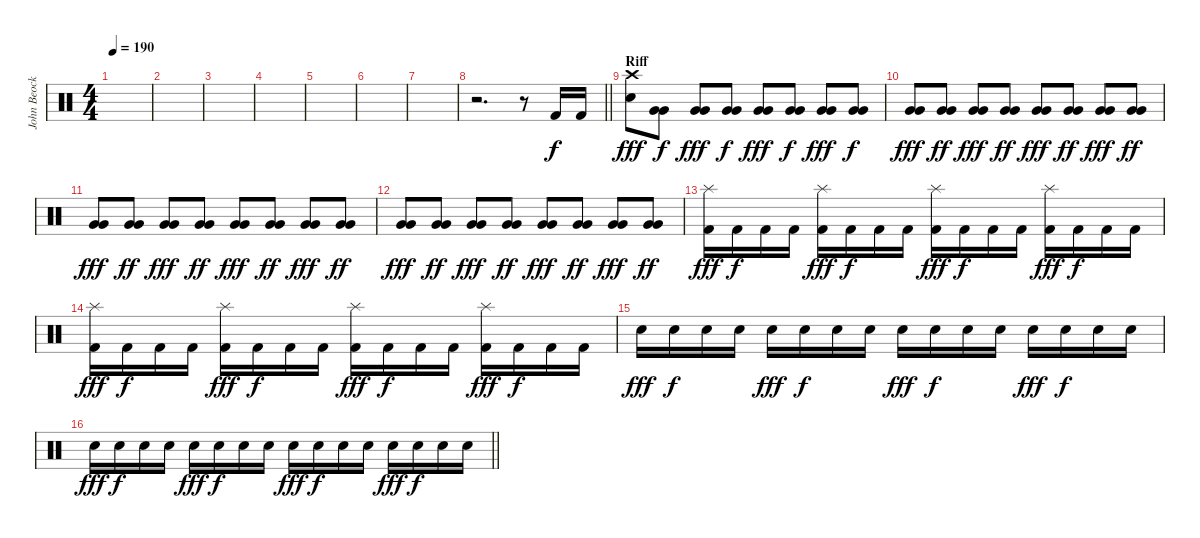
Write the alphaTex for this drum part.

\track ("John Beocklin (Drums)" "John Beock") {instrument percussion}
\staff {score}
\articulation defaults
\ts (4 4)
\tempo 190
\clef neutral
\ks c
|
|
|
|
|
|
|
\barLineRight lightlight
r.2{d} r.8 "Kick (hit) 2".16 "Kick (hit) 2".16 |
\section ("" "Riff")
("Crash high (hit)" "Snare (hit) 2").8{dy fff} ("Very Low Tom (hit)" "Very Low Tom (hit)").8{dy f} ("Very Low Tom (hit)" "Very Low Tom (hit)").8{dy fff} ("Very Low Tom (hit)" "Very Low Tom (hit)").8{dy f} ("Very Low Tom (hit)" "Very Low Tom (hit)").8{dy fff} ("Very Low Tom (hit)" "Very Low Tom (hit)").8{dy f} ("Very Low Tom (hit)" "Very Low Tom (hit)").8{dy fff} ("Very Low Tom (hit)" "Very Low Tom (hit)").8{dy f} |
("Very Low Tom (hit)" "Very Low Tom (hit)").8{dy fff} ("Very Low Tom (hit)" "Very Low Tom (hit)").8{dy ff} ("Very Low Tom (hit)" "Very Low Tom (hit)").8{dy fff} ("Very Low Tom (hit)" "Very Low Tom (hit)").8{dy ff} ("Very Low Tom (hit)" "Very Low Tom (hit)").8{dy fff} ("Very Low Tom (hit)" "Very Low Tom (hit)").8{dy ff} ("Very Low Tom (hit)" "Very Low Tom (hit)").8{dy fff} ("Very Low Tom (hit)" "Very Low Tom (hit)").8{dy ff} |
("Very Low Tom (hit)" "Very Low Tom (hit)").8{dy fff} ("Very Low Tom (hit)" "Very Low Tom (hit)").8{dy ff} ("Very Low Tom (hit)" "Very Low Tom (hit)").8{dy fff} ("Very Low Tom (hit)" "Very Low Tom (hit)").8{dy ff} ("Very Low Tom (hit)" "Very Low Tom (hit)").8{dy fff} ("Very Low Tom (hit)" "Very Low Tom (hit)").8{dy ff} ("Very Low Tom (hit)" "Very Low Tom (hit)").8{dy fff} ("Very Low Tom (hit)" "Very Low Tom (hit)").8{dy ff} |
("Very Low Tom (hit)" "Very Low Tom (hit)").8{dy fff} ("Very Low Tom (hit)" "Very Low Tom (hit)").8{dy ff} ("Very Low Tom (hit)" "Very Low Tom (hit)").8{dy fff} ("Very Low Tom (hit)" "Very Low Tom (hit)").8{dy ff} ("Very Low Tom (hit)" "Very Low Tom (hit)").8{dy fff} ("Very Low Tom (hit)" "Very Low Tom (hit)").8{dy ff} ("Very Low Tom (hit)" "Very Low Tom (hit)").8{dy fff} ("Very Low Tom (hit)" "Very Low Tom (hit)").8{dy ff} |
("Splash (hit)" "Kick (hit) 2").16{dy fff} "Kick (hit) 2".16{dy f} "Kick (hit) 2".16 "Kick (hit) 2".16 ("Splash (hit)" "Kick (hit) 2").16{dy fff} "Kick (hit) 2".16{dy f} "Kick (hit) 2".16 "Kick (hit) 2".16 ("Splash (hit)" "Kick (hit) 2").16{dy fff} "Kick (hit) 2".16{dy f} "Kick (hit) 2".16 "Kick (hit) 2".16 ("Splash (hit)" "Kick (hit) 2").16{dy fff} "Kick (hit) 2".16{dy f} "Kick (hit) 2".16 "Kick (hit) 2".16 |
("Splash (hit)" "Kick (hit) 2").16{dy fff} "Kick (hit) 2".16{dy f} "Kick (hit) 2".16 "Kick (hit) 2".16 ("Splash (hit)" "Kick (hit) 2").16{dy fff} "Kick (hit) 2".16{dy f} "Kick (hit) 2".16 "Kick (hit) 2".16 ("Splash (hit)" "Kick (hit) 2").16{dy fff} "Kick (hit) 2".16{dy f} "Kick (hit) 2".16 "Kick (hit) 2".16 ("Splash (hit)" "Kick (hit) 2").16{dy fff} "Kick (hit) 2".16{dy f} "Kick (hit) 2".16 "Kick (hit) 2".16 |
"Snare (hit) 2".16{dy fff} "Snare (hit) 2".16{dy f} "Snare (hit) 2".16 "Snare (hit) 2".16 "Snare (hit) 2".16{dy fff} "Snare (hit) 2".16{dy f} "Snare (hit) 2".16 "Snare (hit) 2".16 "Snare (hit) 2".16{dy fff} "Snare (hit) 2".16{dy f} "Snare (hit) 2".16 "Snare (hit) 2".16 "Snare (hit) 2".16{dy fff} "Snare (hit) 2".16{dy f} "Snare (hit) 2".16 "Snare (hit) 2".16 |
\barLineRight lightlight "Snare (hit) 2".16{dy fff} "Snare (hit) 2".16{dy f} "Snare (hit) 2".16 "Snare (hit) 2".16 "Snare (hit) 2".16{dy fff} "Snare (hit) 2".16{dy f} "Snare (hit) 2".16 "Snare (hit) 2".16 "Snare (hit) 2".16{dy fff} "Snare (hit) 2".16{dy f} "Snare (hit) 2".16 "Snare (hit) 2".16 "Snare (hit) 2".16{dy fff} "Snare (hit) 2".16{dy f} "Snare (hit) 2".16 "Snare (hit) 2".16
